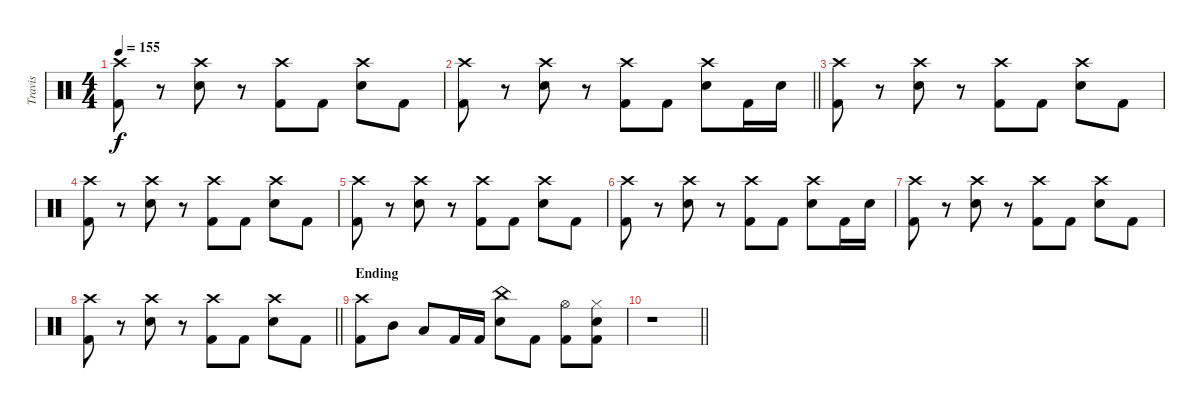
\track ("Travis" "Travis") {instrument percussion}
\staff {score}
\articulation defaults
\ts (4 4)
\tempo 155
\clef neutral
\ks c
("Crash high (hit)" "Kick (hit) 2").8{dy f} r.8 ("Crash high (hit)" "Electric Snare (hit)").8 r.8 ("Crash high (hit)" "Kick (hit) 2").8 "Kick (hit) 2".8 ("Crash high (hit)" "Electric Snare (hit)").8 "Kick (hit) 2".8 |
\barLineRight lightlight
("Crash high (hit)" "Kick (hit) 2").8 r.8 ("Crash high (hit)" "Electric Snare (hit)").8 r.8 ("Crash high (hit)" "Kick (hit) 2").8 "Kick (hit) 2".8 ("Crash high (hit)" "Electric Snare (hit)").8 "Kick (hit) 2".16 "Electric Snare (hit)".16 |
("Crash high (hit)" "Kick (hit) 2").8 r.8 ("Crash high (hit)" "Electric Snare (hit)").8 r.8 ("Crash high (hit)" "Kick (hit) 2").8 "Kick (hit) 2".8 ("Crash high (hit)" "Electric Snare (hit)").8 "Kick (hit) 2".8 |
("Crash high (hit)" "Kick (hit) 2").8 r.8 ("Crash high (hit)" "Electric Snare (hit)").8 r.8 ("Crash high (hit)" "Kick (hit) 2").8 "Kick (hit) 2".8 ("Crash high (hit)" "Electric Snare (hit)").8 "Kick (hit) 2".8 |
("Crash high (hit)" "Kick (hit) 2").8 r.8 ("Crash high (hit)" "Electric Snare (hit)").8 r.8 ("Crash high (hit)" "Kick (hit) 2").8 "Kick (hit) 2".8 ("Crash high (hit)" "Electric Snare (hit)").8 "Kick (hit) 2".8 |
("Crash high (hit)" "Kick (hit) 2").8 r.8 ("Crash high (hit)" "Electric Snare (hit)").8 r.8 ("Crash high (hit)" "Kick (hit) 2").8 "Kick (hit) 2".8 ("Crash high (hit)" "Electric Snare (hit)").8 "Kick (hit) 2".16 "Electric Snare (hit)".16 |
("Crash high (hit)" "Kick (hit) 2").8 r.8 ("Crash high (hit)" "Electric Snare (hit)").8 r.8 ("Crash high (hit)" "Kick (hit) 2").8 "Kick (hit) 2".8 ("Crash high (hit)" "Electric Snare (hit)").8 "Kick (hit) 2".8 |
\barLineRight lightlight
("Crash high (hit)" "Kick (hit) 2").8 r.8 ("Crash high (hit)" "Electric Snare (hit)").8 r.8 ("Crash high (hit)" "Kick (hit) 2").8 "Kick (hit) 2".8 ("Crash high (hit)" "Electric Snare (hit)").8 "Kick (hit) 2".8 |
\section ("" "Ending")
("Crash high (hit)" "Kick (hit) 2").8 "Mid Tom (hit)".8 "Low Tom (hit)".8 "Kick (hit) 2".16 "Kick (hit) 2".16 ("China (hit)" "Electric Snare (hit)").8 "Kick (hit) 2".8 ("Hi-Hat (open)" "Kick (hit) 2").8 ("Hi-Hat (closed)" "Electric Snare (hit)" "Kick (hit) 2").8 |
\barLineRight lightlight
r.1
